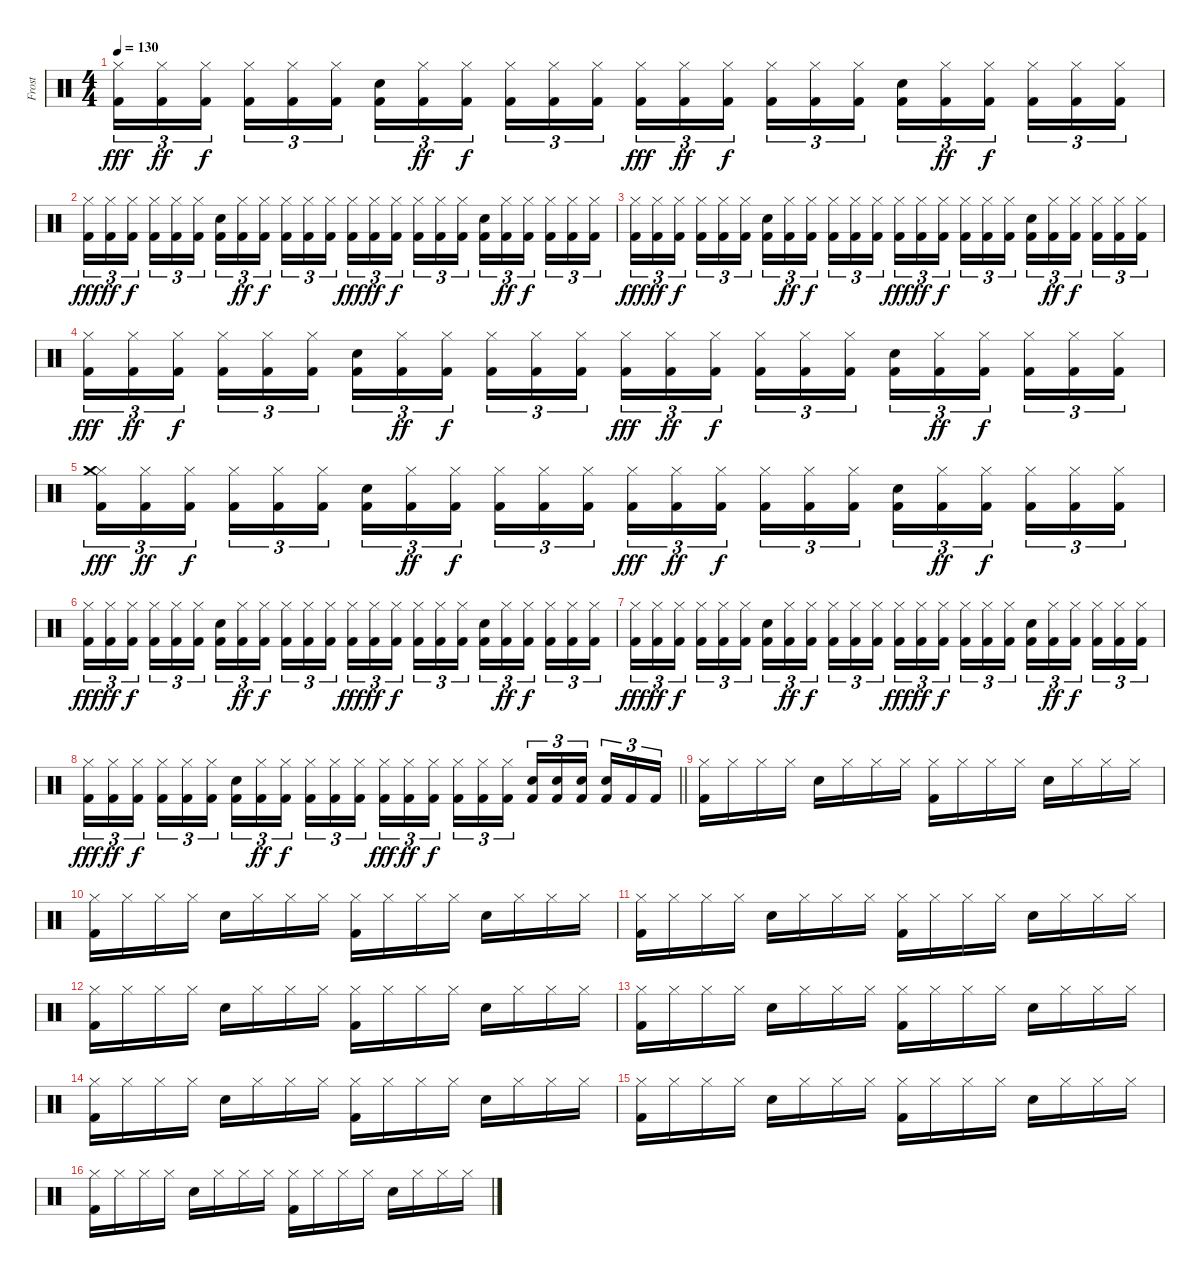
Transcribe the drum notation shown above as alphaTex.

\track ("Frost" "Frost") {instrument percussion}
\staff {score}
\articulation defaults
\ts (4 4)
\tempo 130
\clef neutral
\ks c
("Kick (hit) 2" "Hi-Hat (closed)").16{tu (3 2) dy fff} ("Kick (hit) 2" "Hi-Hat (closed)").16{tu (3 2) dy ff} ("Kick (hit) 2" "Hi-Hat (closed)").16{tu (3 2) dy f} ("Kick (hit) 2" "Hi-Hat (closed)").16{tu (3 2)} ("Kick (hit) 2" "Hi-Hat (closed)").16{tu (3 2)} ("Kick (hit) 2" "Hi-Hat (closed)").16{tu (3 2)} ("Kick (hit) 2" "Snare (hit) 2").16{tu (3 2)} ("Kick (hit) 2" "Hi-Hat (closed)").16{tu (3 2) dy ff} ("Kick (hit) 2" "Hi-Hat (closed)").16{tu (3 2) dy f} ("Kick (hit) 2" "Hi-Hat (closed)").16{tu (3 2)} ("Kick (hit) 2" "Hi-Hat (closed)").16{tu (3 2)} ("Kick (hit) 2" "Hi-Hat (closed)").16{tu (3 2)} ("Kick (hit) 2" "Hi-Hat (closed)").16{tu (3 2) dy fff} ("Kick (hit) 2" "Hi-Hat (closed)").16{tu (3 2) dy ff} ("Kick (hit) 2" "Hi-Hat (closed)").16{tu (3 2) dy f} ("Kick (hit) 2" "Hi-Hat (closed)").16{tu (3 2)} ("Kick (hit) 2" "Hi-Hat (closed)").16{tu (3 2)} ("Kick (hit) 2" "Hi-Hat (closed)").16{tu (3 2)} ("Kick (hit) 2" "Snare (hit) 2").16{tu (3 2)} ("Kick (hit) 2" "Hi-Hat (closed)").16{tu (3 2) dy ff} ("Kick (hit) 2" "Hi-Hat (closed)").16{tu (3 2) dy f} ("Kick (hit) 2" "Hi-Hat (closed)").16{tu (3 2)} ("Kick (hit) 2" "Hi-Hat (closed)").16{tu (3 2)} ("Kick (hit) 2" "Hi-Hat (closed)").16{tu (3 2)} |
("Kick (hit) 2" "Hi-Hat (closed)").16{tu (3 2) dy fff} ("Kick (hit) 2" "Hi-Hat (closed)").16{tu (3 2) dy ff} ("Kick (hit) 2" "Hi-Hat (closed)").16{tu (3 2) dy f} ("Kick (hit) 2" "Hi-Hat (closed)").16{tu (3 2)} ("Kick (hit) 2" "Hi-Hat (closed)").16{tu (3 2)} ("Kick (hit) 2" "Hi-Hat (closed)").16{tu (3 2)} ("Kick (hit) 2" "Snare (hit) 2").16{tu (3 2)} ("Kick (hit) 2" "Hi-Hat (closed)").16{tu (3 2) dy ff} ("Kick (hit) 2" "Hi-Hat (closed)").16{tu (3 2) dy f} ("Kick (hit) 2" "Hi-Hat (closed)").16{tu (3 2)} ("Kick (hit) 2" "Hi-Hat (closed)").16{tu (3 2)} ("Kick (hit) 2" "Hi-Hat (closed)").16{tu (3 2)} ("Kick (hit) 2" "Hi-Hat (closed)").16{tu (3 2) dy fff} ("Kick (hit) 2" "Hi-Hat (closed)").16{tu (3 2) dy ff} ("Kick (hit) 2" "Hi-Hat (closed)").16{tu (3 2) dy f} ("Kick (hit) 2" "Hi-Hat (closed)").16{tu (3 2)} ("Kick (hit) 2" "Hi-Hat (closed)").16{tu (3 2)} ("Kick (hit) 2" "Hi-Hat (closed)").16{tu (3 2)} ("Kick (hit) 2" "Snare (hit) 2").16{tu (3 2)} ("Kick (hit) 2" "Hi-Hat (closed)").16{tu (3 2) dy ff} ("Kick (hit) 2" "Hi-Hat (closed)").16{tu (3 2) dy f} ("Kick (hit) 2" "Hi-Hat (closed)").16{tu (3 2)} ("Kick (hit) 2" "Hi-Hat (closed)").16{tu (3 2)} ("Kick (hit) 2" "Hi-Hat (closed)").16{tu (3 2)} |
("Kick (hit) 2" "Hi-Hat (closed)").16{tu (3 2) dy fff} ("Kick (hit) 2" "Hi-Hat (closed)").16{tu (3 2) dy ff} ("Kick (hit) 2" "Hi-Hat (closed)").16{tu (3 2) dy f} ("Kick (hit) 2" "Hi-Hat (closed)").16{tu (3 2)} ("Kick (hit) 2" "Hi-Hat (closed)").16{tu (3 2)} ("Kick (hit) 2" "Hi-Hat (closed)").16{tu (3 2)} ("Kick (hit) 2" "Snare (hit) 2").16{tu (3 2)} ("Kick (hit) 2" "Hi-Hat (closed)").16{tu (3 2) dy ff} ("Kick (hit) 2" "Hi-Hat (closed)").16{tu (3 2) dy f} ("Kick (hit) 2" "Hi-Hat (closed)").16{tu (3 2)} ("Kick (hit) 2" "Hi-Hat (closed)").16{tu (3 2)} ("Kick (hit) 2" "Hi-Hat (closed)").16{tu (3 2)} ("Kick (hit) 2" "Hi-Hat (closed)").16{tu (3 2) dy fff} ("Kick (hit) 2" "Hi-Hat (closed)").16{tu (3 2) dy ff} ("Kick (hit) 2" "Hi-Hat (closed)").16{tu (3 2) dy f} ("Kick (hit) 2" "Hi-Hat (closed)").16{tu (3 2)} ("Kick (hit) 2" "Hi-Hat (closed)").16{tu (3 2)} ("Kick (hit) 2" "Hi-Hat (closed)").16{tu (3 2)} ("Kick (hit) 2" "Snare (hit) 2").16{tu (3 2)} ("Kick (hit) 2" "Hi-Hat (closed)").16{tu (3 2) dy ff} ("Kick (hit) 2" "Hi-Hat (closed)").16{tu (3 2) dy f} ("Kick (hit) 2" "Hi-Hat (closed)").16{tu (3 2)} ("Kick (hit) 2" "Hi-Hat (closed)").16{tu (3 2)} ("Kick (hit) 2" "Hi-Hat (closed)").16{tu (3 2)} |
("Kick (hit) 2" "Hi-Hat (closed)").16{tu (3 2) dy fff} ("Kick (hit) 2" "Hi-Hat (closed)").16{tu (3 2) dy ff} ("Kick (hit) 2" "Hi-Hat (closed)").16{tu (3 2) dy f} ("Kick (hit) 2" "Hi-Hat (closed)").16{tu (3 2)} ("Kick (hit) 2" "Hi-Hat (closed)").16{tu (3 2)} ("Kick (hit) 2" "Hi-Hat (closed)").16{tu (3 2)} ("Kick (hit) 2" "Snare (hit) 2").16{tu (3 2)} ("Kick (hit) 2" "Hi-Hat (closed)").16{tu (3 2) dy ff} ("Kick (hit) 2" "Hi-Hat (closed)").16{tu (3 2) dy f} ("Kick (hit) 2" "Hi-Hat (closed)").16{tu (3 2)} ("Kick (hit) 2" "Hi-Hat (closed)").16{tu (3 2)} ("Kick (hit) 2" "Hi-Hat (closed)").16{tu (3 2)} ("Kick (hit) 2" "Hi-Hat (closed)").16{tu (3 2) dy fff} ("Kick (hit) 2" "Hi-Hat (closed)").16{tu (3 2) dy ff} ("Kick (hit) 2" "Hi-Hat (closed)").16{tu (3 2) dy f} ("Kick (hit) 2" "Hi-Hat (closed)").16{tu (3 2)} ("Kick (hit) 2" "Hi-Hat (closed)").16{tu (3 2)} ("Kick (hit) 2" "Hi-Hat (closed)").16{tu (3 2)} ("Kick (hit) 2" "Snare (hit) 2").16{tu (3 2)} ("Kick (hit) 2" "Hi-Hat (closed)").16{tu (3 2) dy ff} ("Kick (hit) 2" "Hi-Hat (closed)").16{tu (3 2) dy f} ("Kick (hit) 2" "Hi-Hat (closed)").16{tu (3 2)} ("Kick (hit) 2" "Hi-Hat (closed)").16{tu (3 2)} ("Kick (hit) 2" "Hi-Hat (closed)").16{tu (3 2)} |
("Kick (hit) 2" "Hi-Hat (closed)" "Crash medium (hit)").16{tu (3 2) dy fff} ("Kick (hit) 2" "Hi-Hat (closed)").16{tu (3 2) dy ff} ("Kick (hit) 2" "Hi-Hat (closed)").16{tu (3 2) dy f} ("Kick (hit) 2" "Hi-Hat (closed)").16{tu (3 2)} ("Kick (hit) 2" "Hi-Hat (closed)").16{tu (3 2)} ("Kick (hit) 2" "Hi-Hat (closed)").16{tu (3 2)} ("Kick (hit) 2" "Snare (hit) 2").16{tu (3 2)} ("Kick (hit) 2" "Hi-Hat (closed)").16{tu (3 2) dy ff} ("Kick (hit) 2" "Hi-Hat (closed)").16{tu (3 2) dy f} ("Kick (hit) 2" "Hi-Hat (closed)").16{tu (3 2)} ("Kick (hit) 2" "Hi-Hat (closed)").16{tu (3 2)} ("Kick (hit) 2" "Hi-Hat (closed)").16{tu (3 2)} ("Kick (hit) 2" "Hi-Hat (closed)").16{tu (3 2) dy fff} ("Kick (hit) 2" "Hi-Hat (closed)").16{tu (3 2) dy ff} ("Kick (hit) 2" "Hi-Hat (closed)").16{tu (3 2) dy f} ("Kick (hit) 2" "Hi-Hat (closed)").16{tu (3 2)} ("Kick (hit) 2" "Hi-Hat (closed)").16{tu (3 2)} ("Kick (hit) 2" "Hi-Hat (closed)").16{tu (3 2)} ("Kick (hit) 2" "Snare (hit) 2").16{tu (3 2)} ("Kick (hit) 2" "Hi-Hat (closed)").16{tu (3 2) dy ff} ("Kick (hit) 2" "Hi-Hat (closed)").16{tu (3 2) dy f} ("Kick (hit) 2" "Hi-Hat (closed)").16{tu (3 2)} ("Kick (hit) 2" "Hi-Hat (closed)").16{tu (3 2)} ("Kick (hit) 2" "Hi-Hat (closed)").16{tu (3 2)} |
("Kick (hit) 2" "Hi-Hat (closed)").16{tu (3 2) dy fff} ("Kick (hit) 2" "Hi-Hat (closed)").16{tu (3 2) dy ff} ("Kick (hit) 2" "Hi-Hat (closed)").16{tu (3 2) dy f} ("Kick (hit) 2" "Hi-Hat (closed)").16{tu (3 2)} ("Kick (hit) 2" "Hi-Hat (closed)").16{tu (3 2)} ("Kick (hit) 2" "Hi-Hat (closed)").16{tu (3 2)} ("Kick (hit) 2" "Snare (hit) 2").16{tu (3 2)} ("Kick (hit) 2" "Hi-Hat (closed)").16{tu (3 2) dy ff} ("Kick (hit) 2" "Hi-Hat (closed)").16{tu (3 2) dy f} ("Kick (hit) 2" "Hi-Hat (closed)").16{tu (3 2)} ("Kick (hit) 2" "Hi-Hat (closed)").16{tu (3 2)} ("Kick (hit) 2" "Hi-Hat (closed)").16{tu (3 2)} ("Kick (hit) 2" "Hi-Hat (closed)").16{tu (3 2) dy fff} ("Kick (hit) 2" "Hi-Hat (closed)").16{tu (3 2) dy ff} ("Kick (hit) 2" "Hi-Hat (closed)").16{tu (3 2) dy f} ("Kick (hit) 2" "Hi-Hat (closed)").16{tu (3 2)} ("Kick (hit) 2" "Hi-Hat (closed)").16{tu (3 2)} ("Kick (hit) 2" "Hi-Hat (closed)").16{tu (3 2)} ("Kick (hit) 2" "Snare (hit) 2").16{tu (3 2)} ("Kick (hit) 2" "Hi-Hat (closed)").16{tu (3 2) dy ff} ("Kick (hit) 2" "Hi-Hat (closed)").16{tu (3 2) dy f} ("Kick (hit) 2" "Hi-Hat (closed)").16{tu (3 2)} ("Kick (hit) 2" "Hi-Hat (closed)").16{tu (3 2)} ("Kick (hit) 2" "Hi-Hat (closed)").16{tu (3 2)} |
("Kick (hit) 2" "Hi-Hat (closed)").16{tu (3 2) dy fff} ("Kick (hit) 2" "Hi-Hat (closed)").16{tu (3 2) dy ff} ("Kick (hit) 2" "Hi-Hat (closed)").16{tu (3 2) dy f} ("Kick (hit) 2" "Hi-Hat (closed)").16{tu (3 2)} ("Kick (hit) 2" "Hi-Hat (closed)").16{tu (3 2)} ("Kick (hit) 2" "Hi-Hat (closed)").16{tu (3 2)} ("Kick (hit) 2" "Snare (hit) 2").16{tu (3 2)} ("Kick (hit) 2" "Hi-Hat (closed)").16{tu (3 2) dy ff} ("Kick (hit) 2" "Hi-Hat (closed)").16{tu (3 2) dy f} ("Kick (hit) 2" "Hi-Hat (closed)").16{tu (3 2)} ("Kick (hit) 2" "Hi-Hat (closed)").16{tu (3 2)} ("Kick (hit) 2" "Hi-Hat (closed)").16{tu (3 2)} ("Kick (hit) 2" "Hi-Hat (closed)").16{tu (3 2) dy fff} ("Kick (hit) 2" "Hi-Hat (closed)").16{tu (3 2) dy ff} ("Kick (hit) 2" "Hi-Hat (closed)").16{tu (3 2) dy f} ("Kick (hit) 2" "Hi-Hat (closed)").16{tu (3 2)} ("Kick (hit) 2" "Hi-Hat (closed)").16{tu (3 2)} ("Kick (hit) 2" "Hi-Hat (closed)").16{tu (3 2)} ("Kick (hit) 2" "Snare (hit) 2").16{tu (3 2)} ("Kick (hit) 2" "Hi-Hat (closed)").16{tu (3 2) dy ff} ("Kick (hit) 2" "Hi-Hat (closed)").16{tu (3 2) dy f} ("Kick (hit) 2" "Hi-Hat (closed)").16{tu (3 2)} ("Kick (hit) 2" "Hi-Hat (closed)").16{tu (3 2)} ("Kick (hit) 2" "Hi-Hat (closed)").16{tu (3 2)} |
\barLineRight lightlight
("Kick (hit) 2" "Hi-Hat (closed)").16{tu (3 2) dy fff} ("Kick (hit) 2" "Hi-Hat (closed)").16{tu (3 2) dy ff} ("Kick (hit) 2" "Hi-Hat (closed)").16{tu (3 2) dy f} ("Kick (hit) 2" "Hi-Hat (closed)").16{tu (3 2)} ("Kick (hit) 2" "Hi-Hat (closed)").16{tu (3 2)} ("Kick (hit) 2" "Hi-Hat (closed)").16{tu (3 2)} ("Kick (hit) 2" "Snare (hit) 2").16{tu (3 2)} ("Kick (hit) 2" "Hi-Hat (closed)").16{tu (3 2) dy ff} ("Kick (hit) 2" "Hi-Hat (closed)").16{tu (3 2) dy f} ("Kick (hit) 2" "Hi-Hat (closed)").16{tu (3 2)} ("Kick (hit) 2" "Hi-Hat (closed)").16{tu (3 2)} ("Kick (hit) 2" "Hi-Hat (closed)").16{tu (3 2)} ("Kick (hit) 2" "Hi-Hat (closed)").16{tu (3 2) dy fff} ("Kick (hit) 2" "Hi-Hat (closed)").16{tu (3 2) dy ff} ("Kick (hit) 2" "Hi-Hat (closed)").16{tu (3 2) dy f} ("Kick (hit) 2" "Hi-Hat (closed)").16{tu (3 2)} ("Kick (hit) 2" "Hi-Hat (closed)").16{tu (3 2)} ("Kick (hit) 2" "Hi-Hat (closed)").16{tu (3 2)} ("Kick (hit) 2" "Snare (hit) 2").16{tu (3 2)} ("Kick (hit) 2" "Snare (hit) 2").16{tu (3 2)} ("Kick (hit) 2" "Snare (hit) 2").16{tu (3 2)} ("Kick (hit) 2" "Snare (hit) 2").16{tu (3 2)} "Kick (hit) 2".16{tu (3 2)} "Kick (hit) 2".16{tu (3 2)} |
("Kick (hit) 2" "Hi-Hat (closed)").16 "Hi-Hat (closed)".16 "Hi-Hat (closed)".16 "Hi-Hat (closed)".16 "Snare (hit) 2".16 "Hi-Hat (closed)".16 "Hi-Hat (closed)".16 "Hi-Hat (closed)".16 ("Kick (hit) 2" "Hi-Hat (closed)").16 "Hi-Hat (closed)".16 "Hi-Hat (closed)".16 "Hi-Hat (closed)".16 "Snare (hit) 2".16 "Hi-Hat (closed)".16 "Hi-Hat (closed)".16 "Hi-Hat (closed)".16 |
("Kick (hit) 2" "Hi-Hat (closed)").16 "Hi-Hat (closed)".16 "Hi-Hat (closed)".16 "Hi-Hat (closed)".16 "Snare (hit) 2".16 "Hi-Hat (closed)".16 "Hi-Hat (closed)".16 "Hi-Hat (closed)".16 ("Kick (hit) 2" "Hi-Hat (closed)").16 "Hi-Hat (closed)".16 "Hi-Hat (closed)".16 "Hi-Hat (closed)".16 "Snare (hit) 2".16 "Hi-Hat (closed)".16 "Hi-Hat (closed)".16 "Hi-Hat (closed)".16 |
("Kick (hit) 2" "Hi-Hat (closed)").16 "Hi-Hat (closed)".16 "Hi-Hat (closed)".16 "Hi-Hat (closed)".16 "Snare (hit) 2".16 "Hi-Hat (closed)".16 "Hi-Hat (closed)".16 "Hi-Hat (closed)".16 ("Kick (hit) 2" "Hi-Hat (closed)").16 "Hi-Hat (closed)".16 "Hi-Hat (closed)".16 "Hi-Hat (closed)".16 "Snare (hit) 2".16 "Hi-Hat (closed)".16 "Hi-Hat (closed)".16 "Hi-Hat (closed)".16 |
("Kick (hit) 2" "Hi-Hat (closed)").16 "Hi-Hat (closed)".16 "Hi-Hat (closed)".16 "Hi-Hat (closed)".16 "Snare (hit) 2".16 "Hi-Hat (closed)".16 "Hi-Hat (closed)".16 "Hi-Hat (closed)".16 ("Kick (hit) 2" "Hi-Hat (closed)").16 "Hi-Hat (closed)".16 "Hi-Hat (closed)".16 "Hi-Hat (closed)".16 "Snare (hit) 2".16 "Hi-Hat (closed)".16 "Hi-Hat (closed)".16 "Hi-Hat (closed)".16 |
("Kick (hit) 2" "Hi-Hat (closed)").16 "Hi-Hat (closed)".16 "Hi-Hat (closed)".16 "Hi-Hat (closed)".16 "Snare (hit) 2".16 "Hi-Hat (closed)".16 "Hi-Hat (closed)".16 "Hi-Hat (closed)".16 ("Kick (hit) 2" "Hi-Hat (closed)").16 "Hi-Hat (closed)".16 "Hi-Hat (closed)".16 "Hi-Hat (closed)".16 "Snare (hit) 2".16 "Hi-Hat (closed)".16 "Hi-Hat (closed)".16 "Hi-Hat (closed)".16 |
("Kick (hit) 2" "Hi-Hat (closed)").16 "Hi-Hat (closed)".16 "Hi-Hat (closed)".16 "Hi-Hat (closed)".16 "Snare (hit) 2".16 "Hi-Hat (closed)".16 "Hi-Hat (closed)".16 "Hi-Hat (closed)".16 ("Kick (hit) 2" "Hi-Hat (closed)").16 "Hi-Hat (closed)".16 "Hi-Hat (closed)".16 "Hi-Hat (closed)".16 "Snare (hit) 2".16 "Hi-Hat (closed)".16 "Hi-Hat (closed)".16 "Hi-Hat (closed)".16 |
("Kick (hit) 2" "Hi-Hat (closed)").16 "Hi-Hat (closed)".16 "Hi-Hat (closed)".16 "Hi-Hat (closed)".16 "Snare (hit) 2".16 "Hi-Hat (closed)".16 "Hi-Hat (closed)".16 "Hi-Hat (closed)".16 ("Kick (hit) 2" "Hi-Hat (closed)").16 "Hi-Hat (closed)".16 "Hi-Hat (closed)".16 "Hi-Hat (closed)".16 "Snare (hit) 2".16 "Hi-Hat (closed)".16 "Hi-Hat (closed)".16 "Hi-Hat (closed)".16 |
("Kick (hit) 2" "Hi-Hat (closed)").16 "Hi-Hat (closed)".16 "Hi-Hat (closed)".16 "Hi-Hat (closed)".16 "Snare (hit) 2".16 "Hi-Hat (closed)".16 "Hi-Hat (closed)".16 "Hi-Hat (closed)".16 ("Kick (hit) 2" "Hi-Hat (closed)").16 "Hi-Hat (closed)".16 "Hi-Hat (closed)".16 "Hi-Hat (closed)".16 "Snare (hit) 2".16 "Hi-Hat (closed)".16 "Hi-Hat (closed)".16 "Hi-Hat (closed)".16
